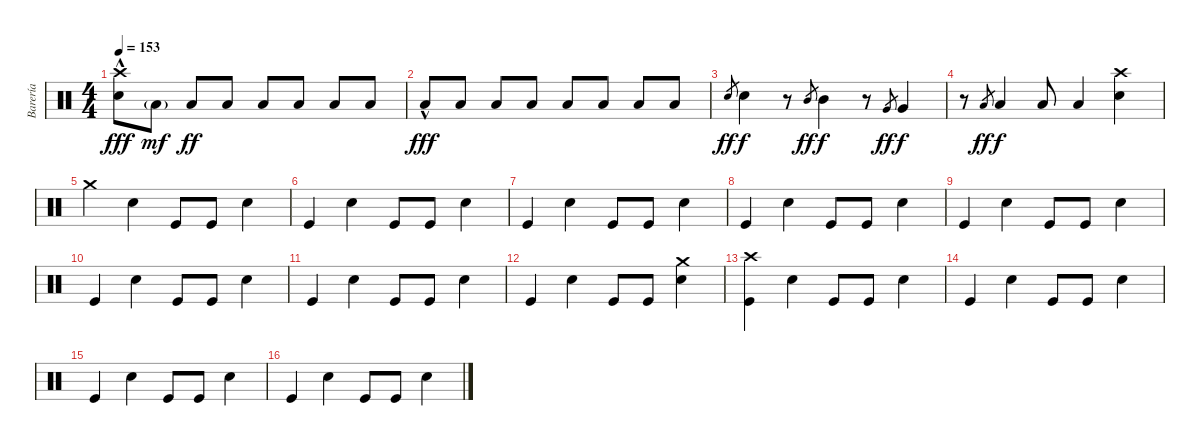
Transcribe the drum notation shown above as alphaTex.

\track ("Barería" "Barería") {instrument percussion}
\staff {score}
\articulation defaults
\ts (4 4)
\tempo 153
\clef neutral
\ks c
("Crash high (hit)"{hac} "Snare (hit) 2"{hac}).8{dy fff} "Low Floor Tom (hit)"{g}.8{dy mf} "Low Floor Tom (hit)".8{dy ff} "Low Floor Tom (hit)".8 "Low Floor Tom (hit)".8 "Low Floor Tom (hit)".8 "Low Floor Tom (hit)".8 "Low Floor Tom (hit)".8 |
"Low Floor Tom (hit)"{hac}.8{dy fff} "Low Floor Tom (hit)".8 "Low Floor Tom (hit)".8 "Low Floor Tom (hit)".8 "Low Floor Tom (hit)".8 "Low Floor Tom (hit)".8 "Low Floor Tom (hit)".8 "Low Floor Tom (hit)".8 |
"Snare (hit) 2".8{gr dy ff} "Snare (hit) 2".4{dy f} r.8 "Mid Tom (hit)".8{gr dy ff} "Mid Tom (hit)".4{dy f} r.8 "Very Low Tom (hit)".8{gr dy ff} "Very Low Tom (hit)".4{dy f} |
r.8 "Low Tom (hit)".8{gr dy ff} "Low Tom (hit)".4{dy f} "Low Floor Tom (hit)".8 "Low Floor Tom (hit)".4 ("Crash high (hit)" "Snare (hit) 2").4 |
"Crash medium (hit)".4 "Snare (hit) 2".4 "Kick (hit)".8 "Kick (hit)".8 "Snare (hit) 2".4 |
"Kick (hit)".4 "Snare (hit) 2".4 "Kick (hit)".8 "Kick (hit)".8 "Snare (hit) 2".4 |
"Kick (hit)".4 "Snare (hit) 2".4 "Kick (hit)".8 "Kick (hit)".8 "Snare (hit) 2".4 |
"Kick (hit)".4 "Snare (hit) 2".4 "Kick (hit)".8 "Kick (hit)".8 "Snare (hit) 2".4 |
"Kick (hit)".4 "Snare (hit) 2".4 "Kick (hit)".8 "Kick (hit)".8 "Snare (hit) 2".4 |
"Kick (hit)".4 "Snare (hit) 2".4 "Kick (hit)".8 "Kick (hit)".8 "Snare (hit) 2".4 |
"Kick (hit)".4 "Snare (hit) 2".4 "Kick (hit)".8 "Kick (hit)".8 "Snare (hit) 2".4 |
"Kick (hit)".4 "Snare (hit) 2".4 "Kick (hit)".8 "Kick (hit)".8 ("Crash medium (hit)" "Snare (hit) 2").4 |
("Crash high (hit)" "Kick (hit)").4 "Snare (hit) 2".4 "Kick (hit)".8 "Kick (hit)".8 "Snare (hit) 2".4 |
"Kick (hit)".4 "Snare (hit) 2".4 "Kick (hit)".8 "Kick (hit)".8 "Snare (hit) 2".4 |
"Kick (hit)".4 "Snare (hit) 2".4 "Kick (hit)".8 "Kick (hit)".8 "Snare (hit) 2".4 |
"Kick (hit)".4 "Snare (hit) 2".4 "Kick (hit)".8 "Kick (hit)".8 "Snare (hit) 2".4
